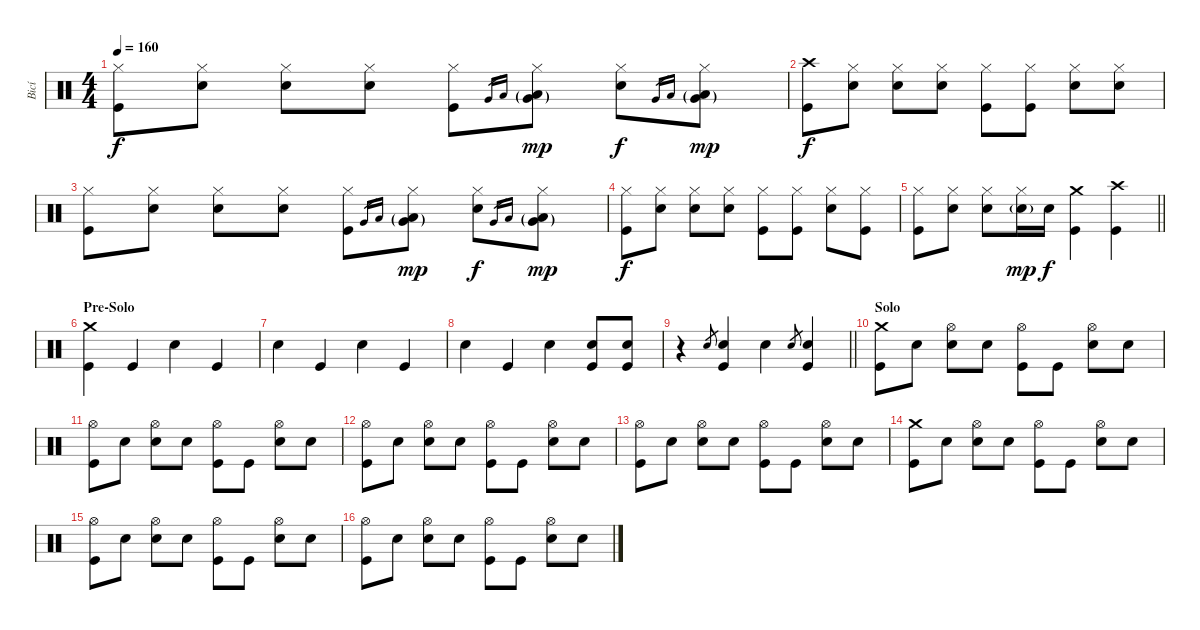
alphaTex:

\track ("Bicí" "Bicí") {instrument percussion}
\staff {score}
\articulation defaults
\ts (4 4)
\tempo 160
\clef neutral
\ks c
("Hi-Hat (closed)" "Kick (hit)").8{dy f} ("Hi-Hat (closed)" "Snare (hit)").8 ("Hi-Hat (closed)" "Electric Snare (hit)").8 ("Hi-Hat (closed)" "Snare (hit)").8 ("Hi-Hat (closed)" "Kick (hit)").8 "Very Low Tom (hit)".16{gr} "Low Floor Tom (hit)".16{gr} ("Hi-Hat (closed)" "Very Low Tom (hit)"{g} "Low Floor Tom (hit)"{g}).8{dy mp} ("Hi-Hat (closed)" "Electric Snare (hit)").8{dy f} "Very Low Tom (hit)".16{gr} "Low Floor Tom (hit)".16{gr} ("Hi-Hat (closed)" "Very Low Tom (hit)"{g} "Low Floor Tom (hit)"{g}).8{dy mp} |
("Crash high (hit)" "Kick (hit)").8{dy f} ("Hi-Hat (closed)" "Snare (hit)").8 ("Hi-Hat (closed)" "Electric Snare (hit)").8 ("Hi-Hat (closed)" "Snare (hit)").8 ("Hi-Hat (closed)" "Kick (hit)").8 ("Hi-Hat (closed)" "Kick (hit)").8 ("Hi-Hat (closed)" "Electric Snare (hit)").8 ("Hi-Hat (closed)" "Snare (hit)").8 |
("Hi-Hat (closed)" "Kick (hit)").8 ("Hi-Hat (closed)" "Snare (hit)").8 ("Hi-Hat (closed)" "Electric Snare (hit)").8 ("Hi-Hat (closed)" "Snare (hit)").8 ("Hi-Hat (closed)" "Kick (hit)").8 "Very Low Tom (hit)".16{gr} "Low Floor Tom (hit)".16{gr} ("Hi-Hat (closed)" "Very Low Tom (hit)"{g} "Low Floor Tom (hit)"{g}).8{dy mp} ("Hi-Hat (closed)" "Electric Snare (hit)").8{dy f} "Very Low Tom (hit)".16{gr} "Low Floor Tom (hit)".16{gr} ("Hi-Hat (closed)" "Very Low Tom (hit)"{g} "Low Floor Tom (hit)"{g}).8{dy mp} |
("Hi-Hat (closed)" "Kick (hit)").8{dy f} ("Hi-Hat (closed)" "Snare (hit)").8 ("Hi-Hat (closed)" "Electric Snare (hit)").8 ("Hi-Hat (closed)" "Snare (hit)").8 ("Hi-Hat (closed)" "Kick (hit)").8 ("Hi-Hat (closed)" "Kick (hit)").8 ("Hi-Hat (closed)" "Electric Snare (hit)").8 ("Hi-Hat (closed)" "Kick (hit)").8 |
\barLineRight lightlight
("Hi-Hat (closed)" "Kick (hit)").8 ("Hi-Hat (closed)" "Snare (hit)").8 ("Hi-Hat (closed)" "Electric Snare (hit)").8 ("Hi-Hat (closed)" "Electric Snare (hit)"{g}).16{dy mp} "Electric Snare (hit)".16{dy f} ("Crash medium (hit)" "Kick (hit)").4 ("Crash high (hit)" "Kick (hit)").4 |
\section ("" "Pre-Solo")
("Crash medium (hit)" "Kick (hit)").4 "Kick (hit)".4 "Snare (hit)".4 "Kick (hit)".4 |
"Snare (hit)".4 "Kick (hit)".4 "Snare (hit)".4 "Kick (hit)".4 |
"Snare (hit)".4 "Kick (hit)".4 "Snare (hit)".4 ("Kick (hit)" "Electric Snare (hit)").8 ("Kick (hit)" "Electric Snare (hit)").8 |
\barLineRight lightlight
r.4 "Electric Snare (hit)".8{gr} ("Kick (hit)" "Electric Snare (hit)").4 "Snare (hit)".4 "Electric Snare (hit)".8{gr} ("Kick (hit)" "Electric Snare (hit)").4 |
\section ("" "Solo")
("Crash medium (hit)" "Kick (hit)").8 "Snare (hit)".8 ("Hi-Hat (open)" "Electric Snare (hit)").8 "Snare (hit)".8 ("Hi-Hat (open)" "Kick (hit)").8 "Kick (hit)".8 ("Hi-Hat (open)" "Electric Snare (hit)").8 "Snare (hit)".8 |
("Hi-Hat (open)" "Kick (hit)").8 "Snare (hit)".8 ("Hi-Hat (open)" "Electric Snare (hit)").8 "Snare (hit)".8 ("Hi-Hat (open)" "Kick (hit)").8 "Kick (hit)".8 ("Hi-Hat (open)" "Electric Snare (hit)").8 "Snare (hit)".8 |
("Hi-Hat (open)" "Kick (hit)").8 "Snare (hit)".8 ("Hi-Hat (open)" "Electric Snare (hit)").8 "Snare (hit)".8 ("Hi-Hat (open)" "Kick (hit)").8 "Kick (hit)".8 ("Hi-Hat (open)" "Electric Snare (hit)").8 "Snare (hit)".8 |
("Hi-Hat (open)" "Kick (hit)").8 "Snare (hit)".8 ("Hi-Hat (open)" "Electric Snare (hit)").8 "Snare (hit)".8 ("Hi-Hat (open)" "Kick (hit)").8 "Kick (hit)".8 ("Hi-Hat (open)" "Electric Snare (hit)").8 "Snare (hit)".8 |
("Crash medium (hit)" "Kick (hit)").8 "Snare (hit)".8 ("Hi-Hat (open)" "Electric Snare (hit)").8 "Snare (hit)".8 ("Hi-Hat (open)" "Kick (hit)").8 "Kick (hit)".8 ("Hi-Hat (open)" "Electric Snare (hit)").8 "Snare (hit)".8 |
("Hi-Hat (open)" "Kick (hit)").8 "Snare (hit)".8 ("Hi-Hat (open)" "Electric Snare (hit)").8 "Snare (hit)".8 ("Hi-Hat (open)" "Kick (hit)").8 "Kick (hit)".8 ("Hi-Hat (open)" "Electric Snare (hit)").8 "Snare (hit)".8 |
("Hi-Hat (open)" "Kick (hit)").8 "Snare (hit)".8 ("Hi-Hat (open)" "Electric Snare (hit)").8 "Snare (hit)".8 ("Hi-Hat (open)" "Kick (hit)").8 "Kick (hit)".8 ("Hi-Hat (open)" "Electric Snare (hit)").8 "Snare (hit)".8
